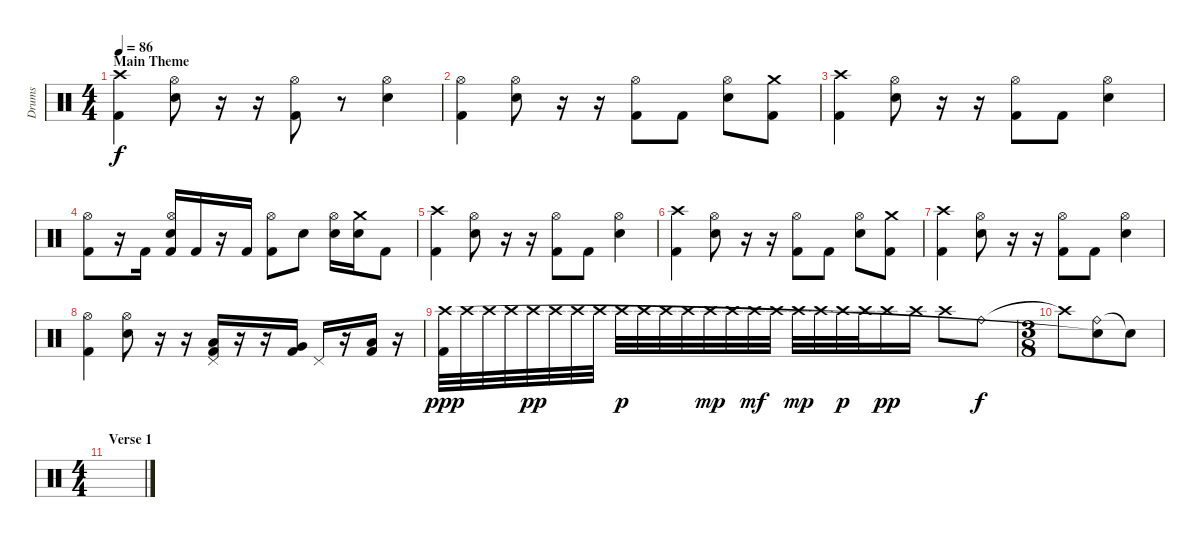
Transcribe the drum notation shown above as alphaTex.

\track ("Drums" "Drums") {instrument percussion}
\staff {score}
\articulation defaults
\ts (4 4)
\section ("" "Main Theme")
\tempo 86
\clef neutral
\ks c
("Kick (hit) 2" "Crash high (hit)").4{dy f} ("Hi-Hat (open)" "Electric Snare (hit)").8 r.16 r.16 ("Kick (hit) 2" "Hi-Hat (open)").8 r.8 ("Hi-Hat (open)" "Electric Snare (hit)").4 |
("Kick (hit) 2" "Hi-Hat (open)").4 ("Hi-Hat (open)" "Electric Snare (hit)").8 r.16 r.16 ("Kick (hit) 2" "Hi-Hat (open)").8 "Kick (hit) 2".8 ("Hi-Hat (open)" "Electric Snare (hit)").8 ("Kick (hit) 2" "Crash medium (hit)").8 |
("Kick (hit) 2" "Crash high (hit)").4 ("Hi-Hat (open)" "Electric Snare (hit)").8 r.16 r.16 ("Kick (hit) 2" "Hi-Hat (open)").8 "Kick (hit) 2".8 ("Hi-Hat (open)" "Electric Snare (hit)").4 |
("Kick (hit) 2" "Hi-Hat (open)").8 r.16 "Kick (hit) 2".16 ("Kick (hit) 2" "Hi-Hat (open)" "Electric Snare (hit)").16 "Kick (hit) 2".16 r.16 "Kick (hit) 2".16 ("Kick (hit) 2" "Hi-Hat (open)").8 "Electric Snare (hit)".8 ("Hi-Hat (open)" "Electric Snare (hit)").16 ("Electric Snare (hit)" "Crash medium (hit)").16 "Kick (hit) 2".8 |
("Kick (hit) 2" "Crash high (hit)").4 ("Hi-Hat (open)" "Electric Snare (hit)").8 r.16 r.16 ("Kick (hit) 2" "Hi-Hat (open)").8 "Kick (hit) 2".8 ("Hi-Hat (open)" "Electric Snare (hit)").4 |
("Kick (hit) 2" "Crash high (hit)").4 ("Hi-Hat (open)" "Electric Snare (hit)").8 r.16 r.16 ("Kick (hit) 2" "Hi-Hat (open)").8 "Kick (hit) 2".8 ("Hi-Hat (open)" "Electric Snare (hit)").8 ("Kick (hit) 2" "Crash medium (hit)").8 |
("Kick (hit) 2" "Crash high (hit)").4 ("Hi-Hat (open)" "Electric Snare (hit)").8 r.16 r.16 ("Kick (hit) 2" "Hi-Hat (open)").8 "Kick (hit) 2".8 ("Hi-Hat (open)" "Electric Snare (hit)").4 |
("Kick (hit) 2" "Hi-Hat (open)").4 ("Hi-Hat (open)" "Electric Snare (hit)").8 r.16 r.16 ("Kick (hit) 2" "Pedal Hi-Hat (hit)" "Low Tom (hit)").16 r.16 r.16 ("Kick (hit) 2" "Very Low Tom (hit)").16 "Pedal Hi-Hat (hit)".16 r.16 ("Kick (hit) 2" "Low Floor Tom (hit)").16 r.16 |
("Kick (hit) 2" "Crash high (hit)").32{dy ppp} "Crash high (hit)".32 "Crash high (hit)".32 "Crash high (hit)".32 "Crash high (hit)".32{dy pp} "Crash high (hit)".32 "Crash high (hit)".32 "Crash high (hit)".32 "Crash high (hit)".32{dy p} "Crash high (hit)".32 "Crash high (hit)".32 "Crash high (hit)".32 "Crash high (hit)".32{dy mp} "Crash high (hit)".32 "Crash high (hit)".32{dy mf} "Crash high (hit)".32 "Crash high (hit)".32{dy mp} "Crash high (hit)".32 "Crash high (hit)".32{dy p} "Crash high (hit)".32 "Crash high (hit)".16{dy pp} "Crash high (hit)".16 "Crash high (hit)".8 "Ride (bell)".8{dy f} |
\ts (3 8)
"Crash high (hit)"{t}.8 ("Ride (bell)" "Snare (hit)"{t}).8 "Snare (hit)"{t}.8 |
\ts (4 4)
\section ("" "Verse 1")
